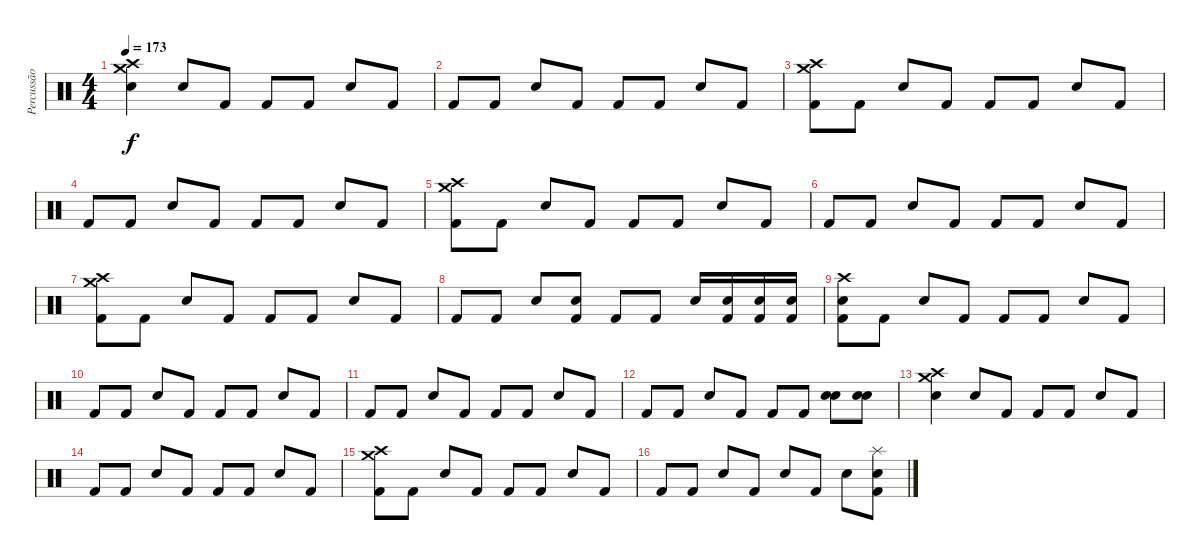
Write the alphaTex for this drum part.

\track ("Percussão" "Percussão") {instrument percussion}
\staff {score}
\articulation defaults
\ts (4 4)
\tempo 173
\clef neutral
\ks c
("Crash high (hit)" "Crash medium (hit)" "Snare (hit) 2").4{dy f} "Snare (hit) 2".8 "Kick (hit) 2".8 "Kick (hit) 2".8 "Kick (hit) 2".8 "Snare (hit) 2".8 "Kick (hit) 2".8 |
"Kick (hit) 2".8 "Kick (hit) 2".8 "Snare (hit) 2".8 "Kick (hit) 2".8 "Kick (hit) 2".8 "Kick (hit) 2".8 "Snare (hit) 2".8 "Kick (hit) 2".8 |
("Crash high (hit)" "Kick (hit) 2" "Crash medium (hit)").8 "Kick (hit) 2".8 "Snare (hit) 2".8 "Kick (hit) 2".8 "Kick (hit) 2".8 "Kick (hit) 2".8 "Snare (hit) 2".8 "Kick (hit) 2".8 |
"Kick (hit) 2".8 "Kick (hit) 2".8 "Snare (hit) 2".8 "Kick (hit) 2".8 "Kick (hit) 2".8 "Kick (hit) 2".8 "Snare (hit) 2".8 "Kick (hit) 2".8 |
("Crash high (hit)" "Kick (hit) 2" "Crash medium (hit)").8 "Kick (hit) 2".8 "Snare (hit) 2".8 "Kick (hit) 2".8 "Kick (hit) 2".8 "Kick (hit) 2".8 "Snare (hit) 2".8 "Kick (hit) 2".8 |
"Kick (hit) 2".8 "Kick (hit) 2".8 "Snare (hit) 2".8 "Kick (hit) 2".8 "Kick (hit) 2".8 "Kick (hit) 2".8 "Snare (hit) 2".8 "Kick (hit) 2".8 |
("Crash high (hit)" "Kick (hit) 2" "Crash medium (hit)").8 "Kick (hit) 2".8 "Snare (hit) 2".8 "Kick (hit) 2".8 "Kick (hit) 2".8 "Kick (hit) 2".8 "Snare (hit) 2".8 "Kick (hit) 2".8 |
"Kick (hit) 2".8 "Kick (hit) 2".8 "Snare (hit) 2".8 ("Kick (hit) 2" "Electric Snare (hit)").8 "Kick (hit) 2".8 "Kick (hit) 2".8 "Snare (hit) 2".16 ("Kick (hit) 2" "Electric Snare (hit)").16 ("Kick (hit) 2" "Electric Snare (hit)").16 ("Kick (hit) 2" "Electric Snare (hit)").16 |
("Crash high (hit)" "Kick (hit) 2" "Electric Snare (hit)").8 "Kick (hit) 2".8 "Snare (hit) 2".8 "Kick (hit) 2".8 "Kick (hit) 2".8 "Kick (hit) 2".8 "Snare (hit) 2".8 "Kick (hit) 2".8 |
"Kick (hit) 2".8 "Kick (hit) 2".8 "Snare (hit) 2".8 "Kick (hit) 2".8 "Kick (hit) 2".8 "Kick (hit) 2".8 "Snare (hit) 2".8 "Kick (hit) 2".8 |
"Kick (hit) 2".8 "Kick (hit) 2".8 "Snare (hit) 2".8 "Kick (hit) 2".8 "Kick (hit) 2".8 "Kick (hit) 2".8 "Snare (hit) 2".8 "Kick (hit) 2".8 |
"Kick (hit) 2".8 "Kick (hit) 2".8 "Snare (hit) 2".8 "Kick (hit) 2".8 "Kick (hit) 2".8 "Kick (hit) 2".8 ("Snare (hit) 2" "Electric Snare (hit)").8 ("Snare (hit) 2" "Electric Snare (hit)").8 |
("Crash high (hit)" "Crash medium (hit)" "Snare (hit) 2").4 "Snare (hit) 2".8 "Kick (hit) 2".8 "Kick (hit) 2".8 "Kick (hit) 2".8 "Snare (hit) 2".8 "Kick (hit) 2".8 |
"Kick (hit) 2".8 "Kick (hit) 2".8 "Snare (hit) 2".8 "Kick (hit) 2".8 "Kick (hit) 2".8 "Kick (hit) 2".8 "Snare (hit) 2".8 "Kick (hit) 2".8 |
("Crash high (hit)" "Kick (hit) 2" "Crash medium (hit)").8 "Kick (hit) 2".8 "Snare (hit) 2".8 "Kick (hit) 2".8 "Kick (hit) 2".8 "Kick (hit) 2".8 "Snare (hit) 2".8 "Kick (hit) 2".8 |
"Kick (hit) 2".8 "Kick (hit) 2".8 "Snare (hit) 2".8 "Kick (hit) 2".8 "Snare (hit) 2".8 "Kick (hit) 2".8 "Snare (hit) 2".8 ("Electric Snare (hit)" "Kick (hit) 2" "Splash (hit)").8
